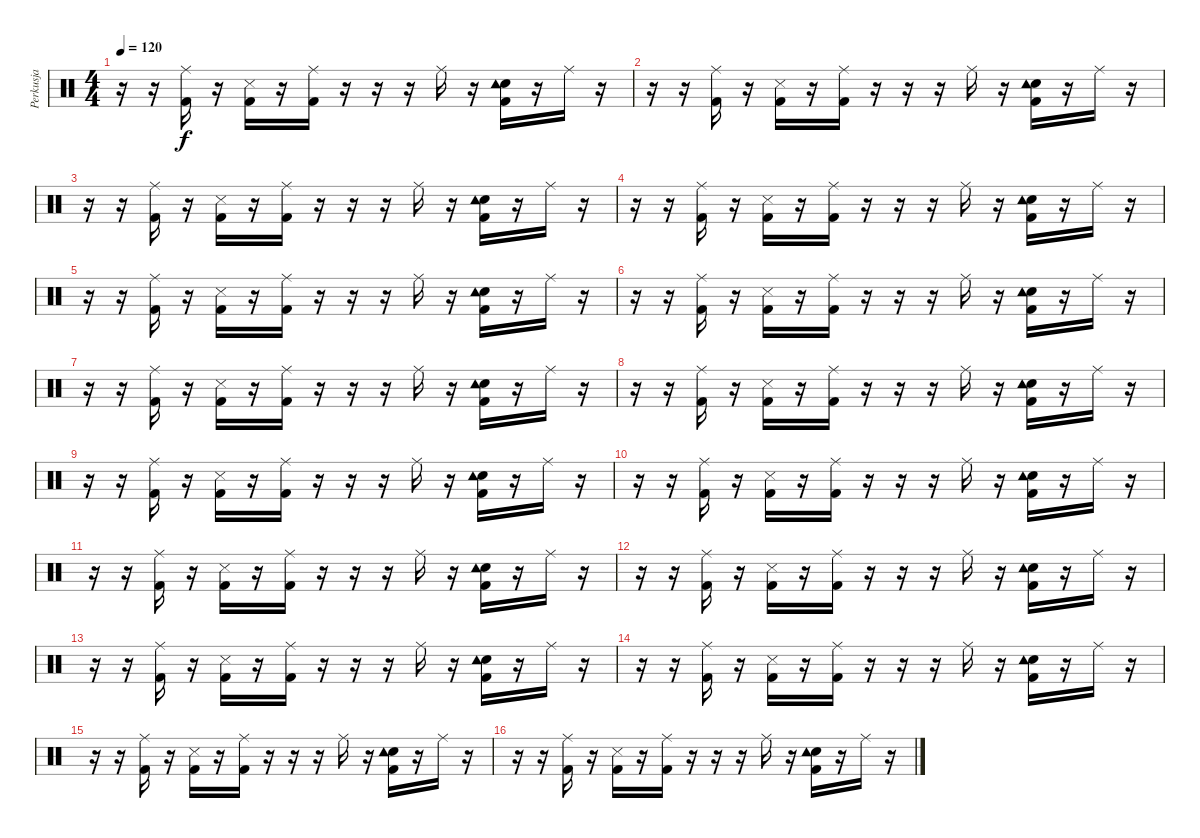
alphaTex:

\track ("Perkusja" "Perkusja") {instrument percussion}
\staff {score}
\articulation defaults
\ts (4 4)
\tempo 120
\clef neutral
\ks c
r.16{dy f} r.16 ("Kick (hit) 2" "Ride (middle)").16 r.16 ("Snare (side stick) 3" "Kick (hit) 2").16 r.16 ("Kick (hit) 2" "Ride (middle)").16 r.16 r.16 r.16 "Ride (middle)".16 r.16 ("Electric Snare (hit)" "Tambourine (hit)" "Kick (hit) 2").16 r.16 "Ride (middle)".16 r.16 |
r.16 r.16 ("Kick (hit) 2" "Ride (middle)").16 r.16 ("Snare (side stick) 3" "Kick (hit) 2").16 r.16 ("Kick (hit) 2" "Ride (middle)").16 r.16 r.16 r.16 "Ride (middle)".16 r.16 ("Electric Snare (hit)" "Tambourine (hit)" "Kick (hit) 2").16 r.16 "Ride (middle)".16 r.16 |
r.16 r.16 ("Kick (hit) 2" "Ride (middle)").16 r.16 ("Snare (side stick) 3" "Kick (hit) 2").16 r.16 ("Kick (hit) 2" "Ride (middle)").16 r.16 r.16 r.16 "Ride (middle)".16 r.16 ("Electric Snare (hit)" "Tambourine (hit)" "Kick (hit) 2").16 r.16 "Ride (middle)".16 r.16 |
r.16 r.16 ("Kick (hit) 2" "Ride (middle)").16 r.16 ("Snare (side stick) 3" "Kick (hit) 2").16 r.16 ("Kick (hit) 2" "Ride (middle)").16 r.16 r.16 r.16 "Ride (middle)".16 r.16 ("Electric Snare (hit)" "Tambourine (hit)" "Kick (hit) 2").16 r.16 "Ride (middle)".16 r.16 |
r.16 r.16 ("Kick (hit) 2" "Ride (middle)").16 r.16 ("Snare (side stick) 3" "Kick (hit) 2").16 r.16 ("Kick (hit) 2" "Ride (middle)").16 r.16 r.16 r.16 "Ride (middle)".16 r.16 ("Electric Snare (hit)" "Tambourine (hit)" "Kick (hit) 2").16 r.16 "Ride (middle)".16 r.16 |
r.16 r.16 ("Kick (hit) 2" "Ride (middle)").16 r.16 ("Snare (side stick) 3" "Kick (hit) 2").16 r.16 ("Kick (hit) 2" "Ride (middle)").16 r.16 r.16 r.16 "Ride (middle)".16 r.16 ("Electric Snare (hit)" "Tambourine (hit)" "Kick (hit) 2").16 r.16 "Ride (middle)".16 r.16 |
r.16 r.16 ("Kick (hit) 2" "Ride (middle)").16 r.16 ("Snare (side stick) 3" "Kick (hit) 2").16 r.16 ("Kick (hit) 2" "Ride (middle)").16 r.16 r.16 r.16 "Ride (middle)".16 r.16 ("Electric Snare (hit)" "Tambourine (hit)" "Kick (hit) 2").16 r.16 "Ride (middle)".16 r.16 |
r.16 r.16 ("Kick (hit) 2" "Ride (middle)").16 r.16 ("Snare (side stick) 3" "Kick (hit) 2").16 r.16 ("Kick (hit) 2" "Ride (middle)").16 r.16 r.16 r.16 "Ride (middle)".16 r.16 ("Electric Snare (hit)" "Tambourine (hit)" "Kick (hit) 2").16{volume 8} r.16 "Ride (middle)".16 r.16 |
r.16 r.16 ("Kick (hit) 2" "Ride (middle)").16 r.16 ("Snare (side stick) 3" "Kick (hit) 2").16 r.16 ("Kick (hit) 2" "Ride (middle)").16 r.16 r.16 r.16 "Ride (middle)".16 r.16 ("Electric Snare (hit)" "Tambourine (hit)" "Kick (hit) 2").16 r.16 "Ride (middle)".16 r.16 |
r.16 r.16 ("Kick (hit) 2" "Ride (middle)").16 r.16 ("Snare (side stick) 3" "Kick (hit) 2").16 r.16 ("Kick (hit) 2" "Ride (middle)").16 r.16 r.16 r.16 "Ride (middle)".16 r.16 ("Electric Snare (hit)" "Tambourine (hit)" "Kick (hit) 2").16 r.16 "Ride (middle)".16 r.16 |
r.16 r.16 ("Kick (hit) 2" "Ride (middle)").16 r.16 ("Snare (side stick) 3" "Kick (hit) 2").16 r.16 ("Kick (hit) 2" "Ride (middle)").16 r.16 r.16 r.16 "Ride (middle)".16 r.16 ("Electric Snare (hit)" "Tambourine (hit)" "Kick (hit) 2").16 r.16 "Ride (middle)".16 r.16 |
r.16 r.16 ("Kick (hit) 2" "Ride (middle)").16 r.16 ("Snare (side stick) 3" "Kick (hit) 2").16 r.16 ("Kick (hit) 2" "Ride (middle)").16 r.16 r.16 r.16 "Ride (middle)".16 r.16 ("Electric Snare (hit)" "Tambourine (hit)" "Kick (hit) 2").16 r.16 "Ride (middle)".16 r.16 |
r.16 r.16 ("Kick (hit) 2" "Ride (middle)").16 r.16 ("Snare (side stick) 3" "Kick (hit) 2").16 r.16 ("Kick (hit) 2" "Ride (middle)").16 r.16 r.16 r.16 "Ride (middle)".16 r.16 ("Electric Snare (hit)" "Tambourine (hit)" "Kick (hit) 2").16 r.16 "Ride (middle)".16 r.16 |
r.16{volume 8} r.16 ("Kick (hit) 2" "Ride (middle)").16 r.16 ("Snare (side stick) 3" "Kick (hit) 2").16 r.16 ("Kick (hit) 2" "Ride (middle)").16 r.16 r.16 r.16 "Ride (middle)".16 r.16 ("Electric Snare (hit)" "Tambourine (hit)" "Kick (hit) 2").16 r.16 "Ride (middle)".16 r.16 |
r.16 r.16 ("Kick (hit) 2" "Ride (middle)").16 r.16 ("Snare (side stick) 3" "Kick (hit) 2").16 r.16 ("Kick (hit) 2" "Ride (middle)").16 r.16 r.16 r.16 "Ride (middle)".16 r.16 ("Electric Snare (hit)" "Tambourine (hit)" "Kick (hit) 2").16 r.16 "Ride (middle)".16 r.16 |
r.16 r.16 ("Kick (hit) 2" "Ride (middle)").16 r.16 ("Snare (side stick) 3" "Kick (hit) 2").16 r.16 ("Kick (hit) 2" "Ride (middle)").16 r.16 r.16 r.16 "Ride (middle)".16 r.16 ("Electric Snare (hit)" "Tambourine (hit)" "Kick (hit) 2").16 r.16 "Ride (middle)".16 r.16
